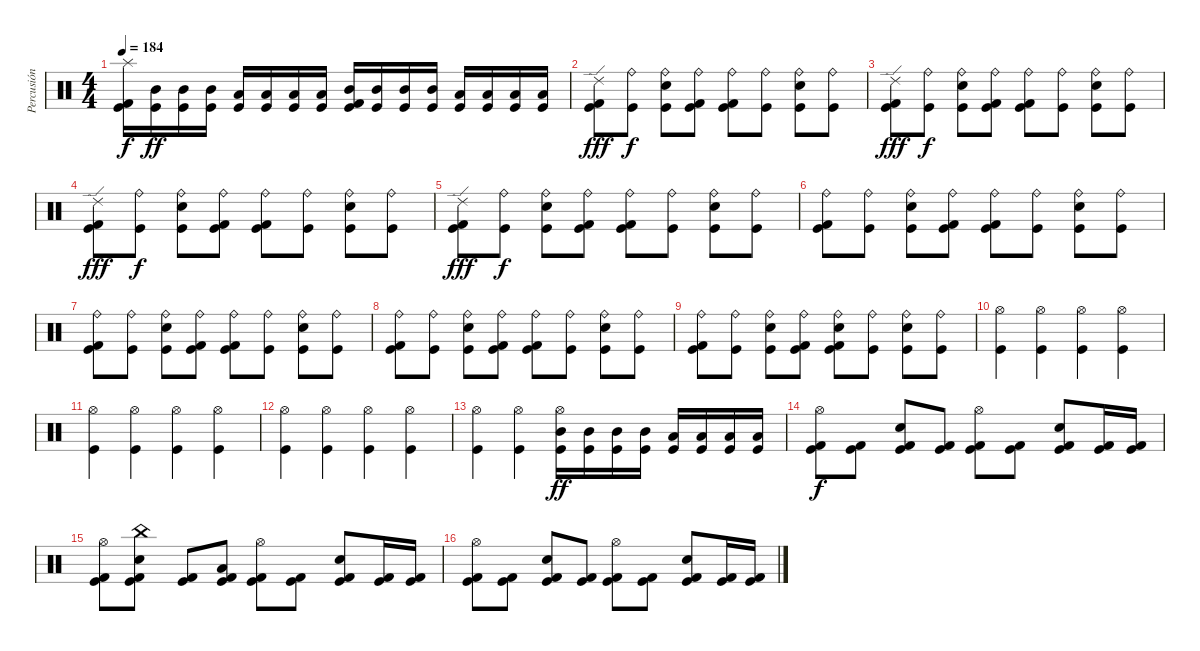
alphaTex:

\track ("Percusión" "Percusión") {instrument percussion}
\staff {score}
\articulation defaults
\ts (4 4)
\tempo 184
\clef neutral
\ks c
("Splash (hit)" "Kick (hit) 2" "Kick (hit)").16{dy f} ("Mid Tom (hit)" "Kick (hit)").16{dy ff} ("Mid Tom (hit)" "Kick (hit)").16 ("Mid Tom (hit)" "Kick (hit)").16 ("Low Tom (hit)" "Kick (hit)").16 ("Low Tom (hit)" "Kick (hit)").16 ("Low Floor Tom (hit)" "Kick (hit)").16 ("Low Floor Tom (hit)" "Kick (hit)").16 ("Mid Tom (hit)" "Kick (hit)" "Kick (hit) 2").16 ("Mid Tom (hit)" "Kick (hit)").16 ("Mid Tom (hit)" "Kick (hit)").16 ("Mid Tom (hit)" "Kick (hit)").16 ("Low Tom (hit)" "Kick (hit)").16 ("Low Tom (hit)" "Kick (hit)").16 ("Low Floor Tom (hit)" "Kick (hit)").16 ("Low Floor Tom (hit)" "Kick (hit)").16 |
("Ride (edge) 2" "Kick (hit) 2" "Kick (hit)").8{dy fff} ("Ride (bell)" "Kick (hit)").8{dy f} ("Ride (bell)" "Electric Snare (hit)" "Kick (hit)").8 ("Ride (bell)" "Kick (hit) 2" "Kick (hit)").8 ("Ride (bell)" "Kick (hit) 2" "Kick (hit)").8 ("Ride (bell)" "Kick (hit)").8 ("Ride (bell)" "Electric Snare (hit)" "Kick (hit)").8 ("Ride (bell)" "Kick (hit)").8 |
("Ride (edge) 2" "Kick (hit) 2" "Kick (hit)").8{dy fff} ("Ride (bell)" "Kick (hit)").8{dy f} ("Ride (bell)" "Electric Snare (hit)" "Kick (hit)").8 ("Ride (bell)" "Kick (hit) 2" "Kick (hit)").8 ("Ride (bell)" "Kick (hit) 2" "Kick (hit)").8 ("Ride (bell)" "Kick (hit)").8 ("Ride (bell)" "Electric Snare (hit)" "Kick (hit)").8 ("Ride (bell)" "Kick (hit)").8 |
("Ride (edge) 2" "Kick (hit) 2" "Kick (hit)").8{dy fff} ("Ride (bell)" "Kick (hit)").8{dy f} ("Ride (bell)" "Electric Snare (hit)" "Kick (hit)").8 ("Ride (bell)" "Kick (hit) 2" "Kick (hit)").8 ("Ride (bell)" "Kick (hit) 2" "Kick (hit)").8 ("Ride (bell)" "Kick (hit)").8 ("Ride (bell)" "Electric Snare (hit)" "Kick (hit)").8 ("Ride (bell)" "Kick (hit)").8 |
("Ride (edge) 2" "Kick (hit) 2" "Kick (hit)").8{dy fff} ("Ride (bell)" "Kick (hit)").8{dy f} ("Ride (bell)" "Electric Snare (hit)" "Kick (hit)").8 ("Ride (bell)" "Kick (hit) 2" "Kick (hit)").8 ("Ride (bell)" "Kick (hit) 2" "Kick (hit)").8 ("Ride (bell)" "Kick (hit)").8 ("Ride (bell)" "Electric Snare (hit)" "Kick (hit)").8 ("Ride (bell)" "Kick (hit)").8 |
("Ride (bell)" "Kick (hit) 2" "Kick (hit)").8 ("Ride (bell)" "Kick (hit)").8 ("Ride (bell)" "Electric Snare (hit)" "Kick (hit)").8 ("Ride (bell)" "Kick (hit) 2" "Kick (hit)").8 ("Ride (bell)" "Kick (hit) 2" "Kick (hit)").8 ("Ride (bell)" "Kick (hit)").8 ("Ride (bell)" "Electric Snare (hit)" "Kick (hit)").8 ("Ride (bell)" "Kick (hit)").8 |
("Ride (bell)" "Kick (hit) 2" "Kick (hit)").8 ("Ride (bell)" "Kick (hit)").8 ("Ride (bell)" "Electric Snare (hit)" "Kick (hit)").8 ("Ride (bell)" "Kick (hit) 2" "Kick (hit)").8 ("Ride (bell)" "Kick (hit) 2" "Kick (hit)").8 ("Ride (bell)" "Kick (hit)").8 ("Ride (bell)" "Electric Snare (hit)" "Kick (hit)").8 ("Ride (bell)" "Kick (hit)").8 |
("Ride (bell)" "Kick (hit) 2" "Kick (hit)").8 ("Ride (bell)" "Kick (hit)").8 ("Ride (bell)" "Electric Snare (hit)" "Kick (hit)").8 ("Ride (bell)" "Kick (hit) 2" "Kick (hit)").8 ("Ride (bell)" "Kick (hit) 2" "Kick (hit)").8 ("Ride (bell)" "Kick (hit)").8 ("Ride (bell)" "Electric Snare (hit)" "Kick (hit)").8 ("Ride (bell)" "Kick (hit)").8 |
("Ride (bell)" "Kick (hit) 2" "Kick (hit)").8 ("Ride (bell)" "Kick (hit)").8 ("Ride (bell)" "Electric Snare (hit)" "Kick (hit)").8 ("Ride (bell)" "Kick (hit) 2" "Kick (hit)").8 ("Ride (bell)" "Electric Snare (hit)" "Kick (hit) 2" "Kick (hit)").8 ("Ride (bell)" "Kick (hit)").8 ("Ride (bell)" "Electric Snare (hit)" "Kick (hit)").8 ("Ride (bell)" "Kick (hit)").8 |
("Hi-Hat (open)" "Kick (hit)").4 ("Hi-Hat (open)" "Kick (hit)").4 ("Hi-Hat (open)" "Kick (hit)").4 ("Hi-Hat (open)" "Kick (hit)").4 |
("Hi-Hat (open)" "Kick (hit)").4 ("Hi-Hat (open)" "Kick (hit)").4 ("Hi-Hat (open)" "Kick (hit)").4 ("Hi-Hat (open)" "Kick (hit)").4 |
("Hi-Hat (open)" "Kick (hit)").4 ("Hi-Hat (open)" "Kick (hit)").4 ("Hi-Hat (open)" "Kick (hit)").4 ("Hi-Hat (open)" "Kick (hit)").4 |
("Hi-Hat (open)" "Kick (hit)").4 ("Hi-Hat (open)" "Kick (hit)").4 ("Hi-Hat (open)" "Mid Tom (hit)" "Kick (hit)").16{dy ff} ("Mid Tom (hit)" "Kick (hit)").16 ("Mid Tom (hit)" "Kick (hit)").16 ("Mid Tom (hit)" "Kick (hit)").16 ("Low Tom (hit)" "Kick (hit)").16 ("Low Floor Tom (hit)" "Kick (hit)").16 ("Low Floor Tom (hit)" "Kick (hit)").16 ("Low Floor Tom (hit)" "Kick (hit)").16 |
("Hi-Hat (open)" "Kick (hit) 2" "Kick (hit)").8{dy f} ("Kick (hit) 2" "Kick (hit)").8 ("Electric Snare (hit)" "Kick (hit) 2" "Kick (hit)").8 ("Kick (hit) 2" "Kick (hit)").8 ("Hi-Hat (open)" "Kick (hit) 2" "Kick (hit)").8 ("Kick (hit) 2" "Kick (hit)").8 ("Electric Snare (hit)" "Kick (hit) 2" "Kick (hit)").8 ("Kick (hit) 2" "Kick (hit)").16 ("Kick (hit) 2" "Kick (hit)").16 |
("Hi-Hat (open)" "Kick (hit) 2" "Kick (hit)").8 ("China (hit)" "Electric Snare (hit)" "Kick (hit) 2" "Kick (hit)").8 ("Kick (hit) 2" "Kick (hit)").8 ("Low Tom (hit)" "Kick (hit) 2" "Kick (hit)").8 ("Hi-Hat (open)" "Kick (hit) 2" "Kick (hit)").8 ("Kick (hit) 2" "Kick (hit)").8 ("Electric Snare (hit)" "Kick (hit) 2" "Kick (hit)").8 ("Kick (hit) 2" "Kick (hit)").16 ("Kick (hit) 2" "Kick (hit)").16 |
("Hi-Hat (open)" "Kick (hit) 2" "Kick (hit)").8 ("Kick (hit) 2" "Kick (hit)").8 ("Electric Snare (hit)" "Kick (hit) 2" "Kick (hit)").8 ("Kick (hit) 2" "Kick (hit)").8 ("Hi-Hat (open)" "Kick (hit) 2" "Kick (hit)").8 ("Kick (hit) 2" "Kick (hit)").8 ("Electric Snare (hit)" "Kick (hit) 2" "Kick (hit)").8 ("Kick (hit) 2" "Kick (hit)").16 ("Kick (hit) 2" "Kick (hit)").16
